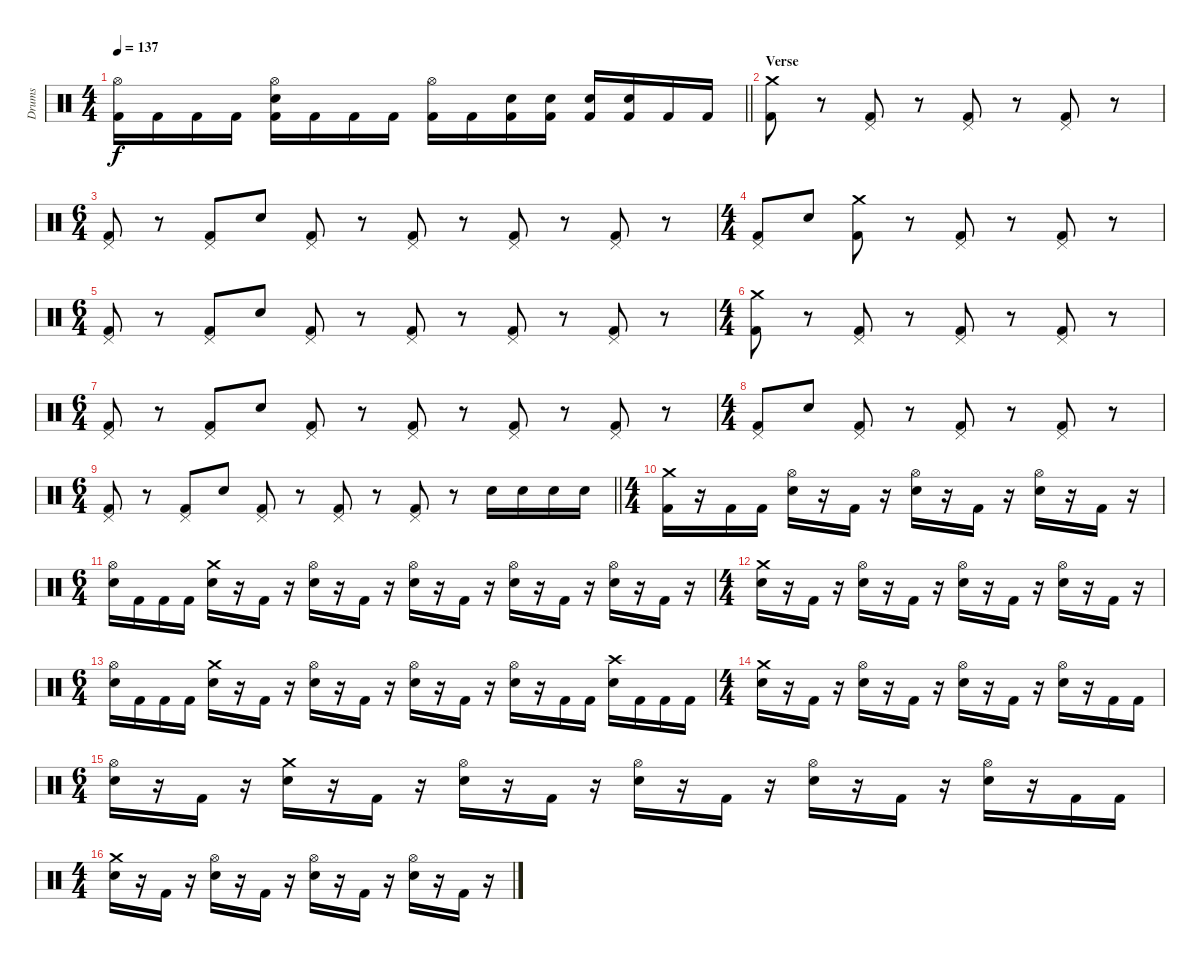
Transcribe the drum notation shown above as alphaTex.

\track ("Drums" "Drums") {instrument percussion}
\staff {score}
\articulation defaults
\ts (4 4)
\tempo 137
\clef neutral
\barLineRight lightlight
\ks c
("Hi-Hat (open)" "Kick (hit) 2").16{dy f} "Kick (hit) 2".16 "Kick (hit) 2".16 "Kick (hit) 2".16 ("Hi-Hat (open)" "Electric Snare (hit)" "Kick (hit) 2").16 "Kick (hit) 2".16 "Kick (hit) 2".16 "Kick (hit) 2".16 ("Hi-Hat (open)" "Kick (hit) 2").16 "Kick (hit) 2".16 ("Electric Snare (hit)" "Kick (hit) 2").16 ("Electric Snare (hit)" "Kick (hit) 2").16 ("Electric Snare (hit)" "Kick (hit) 2").16 ("Electric Snare (hit)" "Kick (hit) 2").16 "Kick (hit) 2".16 "Kick (hit) 2".16 |
\section ("" "Verse")
("Crash medium (hit)" "Kick (hit) 2").8 r.8 ("Pedal Hi-Hat (hit)" "Kick (hit) 2").8 r.8 ("Pedal Hi-Hat (hit)" "Kick (hit) 2").8 r.8 ("Pedal Hi-Hat (hit)" "Kick (hit) 2").8 r.8 |
\ts (6 4)
("Pedal Hi-Hat (hit)" "Kick (hit) 2").8 r.8 ("Pedal Hi-Hat (hit)" "Kick (hit) 2").8 "Electric Snare (hit)".8 ("Pedal Hi-Hat (hit)" "Kick (hit) 2").8 r.8 ("Pedal Hi-Hat (hit)" "Kick (hit) 2").8 r.8 ("Pedal Hi-Hat (hit)" "Kick (hit) 2").8 r.8 ("Pedal Hi-Hat (hit)" "Kick (hit) 2").8 r.8 |
\ts (4 4)
("Pedal Hi-Hat (hit)" "Kick (hit) 2").8 "Electric Snare (hit)".8 ("Crash medium (hit)" "Kick (hit) 2").8 r.8 ("Pedal Hi-Hat (hit)" "Kick (hit) 2").8 r.8 ("Pedal Hi-Hat (hit)" "Kick (hit) 2").8 r.8 |
\ts (6 4)
("Pedal Hi-Hat (hit)" "Kick (hit) 2").8 r.8 ("Pedal Hi-Hat (hit)" "Kick (hit) 2").8 "Electric Snare (hit)".8 ("Pedal Hi-Hat (hit)" "Kick (hit) 2").8 r.8 ("Pedal Hi-Hat (hit)" "Kick (hit) 2").8 r.8 ("Pedal Hi-Hat (hit)" "Kick (hit) 2").8 r.8 ("Pedal Hi-Hat (hit)" "Kick (hit) 2").8 r.8 |
\ts (4 4)
("Crash medium (hit)" "Kick (hit) 2").8 r.8 ("Pedal Hi-Hat (hit)" "Kick (hit) 2").8 r.8 ("Pedal Hi-Hat (hit)" "Kick (hit) 2").8 r.8 ("Pedal Hi-Hat (hit)" "Kick (hit) 2").8 r.8 |
\ts (6 4)
("Pedal Hi-Hat (hit)" "Kick (hit) 2").8 r.8 ("Pedal Hi-Hat (hit)" "Kick (hit) 2").8 "Electric Snare (hit)".8 ("Pedal Hi-Hat (hit)" "Kick (hit) 2").8 r.8 ("Pedal Hi-Hat (hit)" "Kick (hit) 2").8 r.8 ("Pedal Hi-Hat (hit)" "Kick (hit) 2").8 r.8 ("Pedal Hi-Hat (hit)" "Kick (hit) 2").8 r.8 |
\ts (4 4)
("Pedal Hi-Hat (hit)" "Kick (hit) 2").8 "Electric Snare (hit)".8 ("Pedal Hi-Hat (hit)" "Kick (hit) 2").8 r.8 ("Pedal Hi-Hat (hit)" "Kick (hit) 2").8 r.8 ("Pedal Hi-Hat (hit)" "Kick (hit) 2").8 r.8 |
\ts (6 4)
\barLineRight lightlight
("Pedal Hi-Hat (hit)" "Kick (hit) 2").8 r.8 ("Pedal Hi-Hat (hit)" "Kick (hit) 2").8 "Electric Snare (hit)".8 ("Pedal Hi-Hat (hit)" "Kick (hit) 2").8 r.8 ("Pedal Hi-Hat (hit)" "Kick (hit) 2").8 r.8 ("Pedal Hi-Hat (hit)" "Kick (hit) 2").8 r.8 "Electric Snare (hit)".16 "Electric Snare (hit)".16 "Electric Snare (hit)".16 "Electric Snare (hit)".16 |
\ts (4 4)
\section ("" "")
("Crash medium (hit)" "Kick (hit) 2").16 r.16 "Kick (hit) 2".16 "Kick (hit) 2".16 ("Hi-Hat (open)" "Electric Snare (hit)").16 r.16 "Kick (hit) 2".16 r.16 ("Hi-Hat (open)" "Electric Snare (hit)").16 r.16 "Kick (hit) 2".16 r.16 ("Hi-Hat (open)" "Electric Snare (hit)").16 r.16 "Kick (hit) 2".16 r.16 |
\ts (6 4)
("Hi-Hat (open)" "Electric Snare (hit)").16 "Kick (hit) 2".16 "Kick (hit) 2".16 "Kick (hit) 2".16 ("Crash medium (hit)" "Electric Snare (hit)").16 r.16 "Kick (hit) 2".16 r.16 ("Hi-Hat (open)" "Electric Snare (hit)").16 r.16 "Kick (hit) 2".16 r.16 ("Hi-Hat (open)" "Electric Snare (hit)").16 r.16 "Kick (hit) 2".16 r.16 ("Hi-Hat (open)" "Electric Snare (hit)").16 r.16 "Kick (hit) 2".16 r.16 ("Hi-Hat (open)" "Electric Snare (hit)").16 r.16 "Kick (hit) 2".16 r.16 |
\ts (4 4)
("Crash medium (hit)" "Electric Snare (hit)").16 r.16 "Kick (hit) 2".16 r.16 ("Hi-Hat (open)" "Electric Snare (hit)").16 r.16 "Kick (hit) 2".16 r.16 ("Hi-Hat (open)" "Electric Snare (hit)").16 r.16 "Kick (hit) 2".16 r.16 ("Hi-Hat (open)" "Electric Snare (hit)").16 r.16 "Kick (hit) 2".16 r.16 |
\ts (6 4)
("Hi-Hat (open)" "Electric Snare (hit)").16 "Kick (hit) 2".16 "Kick (hit) 2".16 "Kick (hit) 2".16 ("Crash medium (hit)" "Electric Snare (hit)").16 r.16 "Kick (hit) 2".16 r.16 ("Hi-Hat (open)" "Electric Snare (hit)").16 r.16 "Kick (hit) 2".16 r.16 ("Hi-Hat (open)" "Electric Snare (hit)").16 r.16 "Kick (hit) 2".16 r.16 ("Hi-Hat (open)" "Electric Snare (hit)").16 r.16 "Kick (hit) 2".16 "Kick (hit) 2".16 ("Crash high (hit)" "Electric Snare (hit)").16 "Kick (hit) 2".16 "Kick (hit) 2".16 "Kick (hit) 2".16 |
\ts (4 4)
("Crash medium (hit)" "Electric Snare (hit)").16 r.16 "Kick (hit) 2".16 r.16 ("Hi-Hat (open)" "Electric Snare (hit)").16 r.16 "Kick (hit) 2".16 r.16 ("Hi-Hat (open)" "Electric Snare (hit)").16 r.16 "Kick (hit) 2".16 r.16 ("Hi-Hat (open)" "Electric Snare (hit)").16 r.16 "Kick (hit) 2".16 "Kick (hit) 2".16 |
\ts (6 4)
("Hi-Hat (open)" "Electric Snare (hit)").16 r.16 "Kick (hit) 2".16 r.16 ("Crash medium (hit)" "Electric Snare (hit)").16 r.16 "Kick (hit) 2".16 r.16 ("Hi-Hat (open)" "Electric Snare (hit)").16 r.16 "Kick (hit) 2".16 r.16 ("Hi-Hat (open)" "Electric Snare (hit)").16 r.16 "Kick (hit) 2".16 r.16 ("Hi-Hat (open)" "Electric Snare (hit)").16 r.16 "Kick (hit) 2".16 r.16 ("Hi-Hat (open)" "Electric Snare (hit)").16 r.16 "Kick (hit) 2".16 "Kick (hit) 2".16 |
\ts (4 4)
("Crash medium (hit)" "Electric Snare (hit)").16 r.16 "Kick (hit) 2".16 r.16 ("Hi-Hat (open)" "Electric Snare (hit)").16 r.16 "Kick (hit) 2".16 r.16 ("Hi-Hat (open)" "Electric Snare (hit)").16 r.16 "Kick (hit) 2".16 r.16 ("Hi-Hat (open)" "Electric Snare (hit)").16 r.16 "Kick (hit) 2".16 r.16
